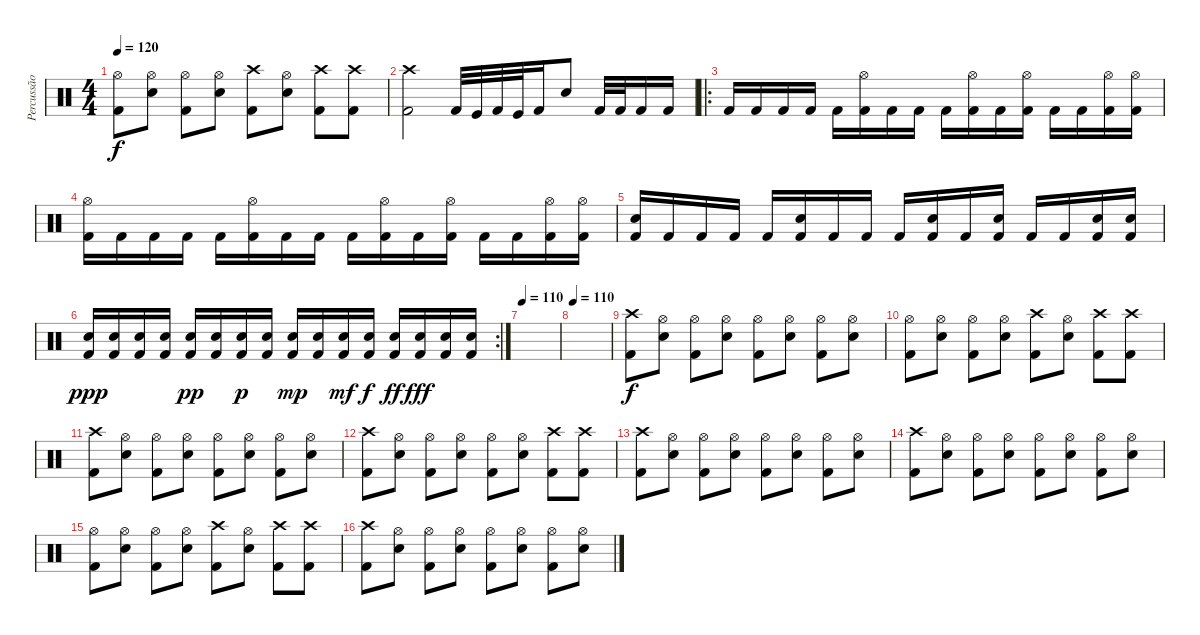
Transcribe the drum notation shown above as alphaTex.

\track ("Percussão" "Percussão") {instrument percussion}
\staff {score}
\articulation defaults
\ts (4 4)
\tempo 120
\clef neutral
\ks c
("Hi-Hat (open)" "Kick (hit) 2").8{dy f} ("Hi-Hat (open)" "Snare (hit) 2").8 ("Hi-Hat (open)" "Kick (hit) 2").8 ("Hi-Hat (open)" "Snare (hit) 2").8 ("Crash high (hit)" "Kick (hit) 2").8 ("Hi-Hat (open)" "Snare (hit) 2").8 ("Crash high (hit)" "Kick (hit) 2").8 ("Crash high (hit)" "Kick (hit) 2").8 |
("Crash high (hit)" "Kick (hit) 2").2 "Kick (hit) 2".32 "Kick (hit)".32 "Kick (hit) 2".32 "Kick (hit)".32 "Kick (hit) 2".16 "Snare (hit) 2".8 "Kick (hit) 2".32 "Kick (hit) 2".32 "Kick (hit) 2".16 "Kick (hit) 2".16 |
\ro "Kick (hit) 2".16 "Kick (hit) 2".16 "Kick (hit) 2".16 "Kick (hit) 2".16 "Kick (hit) 2".16
("Kick (hit) 2" "Hi-Hat (open)").16 "Kick (hit) 2".16 "Kick (hit) 2".16 "Kick (hit) 2".16 ("Kick (hit) 2" "Hi-Hat (open)").16 "Kick (hit) 2".16 ("Kick (hit) 2" "Hi-Hat (open)").16 "Kick (hit) 2".16 "Kick (hit) 2".16 ("Kick (hit) 2" "Hi-Hat (open)").16 ("Kick (hit) 2" "Hi-Hat (open)").16 |
("Kick (hit) 2" "Hi-Hat (open)").16 "Kick (hit) 2".16 "Kick (hit) 2".16 "Kick (hit) 2".16 "Kick (hit) 2".16 ("Kick (hit) 2" "Hi-Hat (open)").16 "Kick (hit) 2".16 "Kick (hit) 2".16 "Kick (hit) 2".16 ("Kick (hit) 2" "Hi-Hat (open)").16 "Kick (hit) 2".16 ("Kick (hit) 2" "Hi-Hat (open)").16 "Kick (hit) 2".16 "Kick (hit) 2".16 ("Kick (hit) 2" "Hi-Hat (open)").16 ("Kick (hit) 2" "Hi-Hat (open)").16 |
("Kick (hit) 2" "Snare (hit) 2").16 "Kick (hit) 2".16 "Kick (hit) 2".16 "Kick (hit) 2".16 "Kick (hit) 2".16 ("Kick (hit) 2" "Snare (hit) 2").16 "Kick (hit) 2".16 "Kick (hit) 2".16 "Kick (hit) 2".16 ("Kick (hit) 2" "Snare (hit) 2").16 "Kick (hit) 2".16 ("Kick (hit) 2" "Snare (hit) 2").16 "Kick (hit) 2".16 "Kick (hit) 2".16 ("Kick (hit) 2" "Snare (hit) 2").16 ("Kick (hit) 2" "Snare (hit) 2").16 |
\rc 2
("Kick (hit) 2" "Snare (hit) 2").16{dy ppp} ("Kick (hit) 2" "Snare (hit) 2").16 ("Kick (hit) 2" "Snare (hit) 2").16 ("Kick (hit) 2" "Snare (hit) 2").16 ("Kick (hit) 2" "Snare (hit) 2").16{dy pp} ("Kick (hit) 2" "Snare (hit) 2").16 ("Kick (hit) 2" "Snare (hit) 2").16{dy p} ("Kick (hit) 2" "Snare (hit) 2").16 ("Kick (hit) 2" "Snare (hit) 2").16{dy mp} ("Kick (hit) 2" "Snare (hit) 2").16 ("Kick (hit) 2" "Snare (hit) 2").16{dy mf} ("Kick (hit) 2" "Snare (hit) 2").16{dy f} ("Kick (hit) 2" "Snare (hit) 2").16{dy ff} ("Kick (hit) 2" "Snare (hit) 2").16{dy fff} ("Kick (hit) 2" "Snare (hit) 2").16 ("Kick (hit) 2" "Snare (hit) 2").16 |
\tempo 110
|
\tempo 110
|
("Crash high (hit)" "Kick (hit) 2").8{dy f} ("Hi-Hat (open)" "Snare (hit) 2").8 ("Hi-Hat (open)" "Kick (hit) 2").8 ("Hi-Hat (open)" "Snare (hit) 2").8 ("Hi-Hat (open)" "Kick (hit) 2").8 ("Hi-Hat (open)" "Snare (hit) 2").8 ("Hi-Hat (open)" "Kick (hit) 2").8 ("Hi-Hat (open)" "Snare (hit) 2").8 |
("Hi-Hat (open)" "Kick (hit) 2").8 ("Hi-Hat (open)" "Snare (hit) 2").8 ("Hi-Hat (open)" "Kick (hit) 2").8 ("Hi-Hat (open)" "Snare (hit) 2").8 ("Crash high (hit)" "Kick (hit) 2").8 ("Hi-Hat (open)" "Snare (hit) 2").8 ("Crash high (hit)" "Kick (hit) 2").8 ("Crash high (hit)" "Kick (hit) 2").8 |
("Crash high (hit)" "Kick (hit) 2").8 ("Hi-Hat (open)" "Snare (hit) 2").8 ("Hi-Hat (open)" "Kick (hit) 2").8 ("Hi-Hat (open)" "Snare (hit) 2").8 ("Hi-Hat (open)" "Kick (hit) 2").8 ("Hi-Hat (open)" "Snare (hit) 2").8 ("Hi-Hat (open)" "Kick (hit) 2").8 ("Hi-Hat (open)" "Snare (hit) 2").8 |
("Crash high (hit)" "Kick (hit) 2").8 ("Hi-Hat (open)" "Snare (hit) 2").8 ("Hi-Hat (open)" "Kick (hit) 2").8 ("Hi-Hat (open)" "Snare (hit) 2").8 ("Hi-Hat (open)" "Kick (hit) 2").8 ("Hi-Hat (open)" "Snare (hit) 2").8 ("Crash high (hit)" "Kick (hit) 2").8 ("Crash high (hit)" "Kick (hit) 2").8 |
("Crash high (hit)" "Kick (hit) 2").8 ("Hi-Hat (open)" "Snare (hit) 2").8 ("Hi-Hat (open)" "Kick (hit) 2").8 ("Hi-Hat (open)" "Snare (hit) 2").8 ("Hi-Hat (open)" "Kick (hit) 2").8 ("Hi-Hat (open)" "Snare (hit) 2").8 ("Hi-Hat (open)" "Kick (hit) 2").8 ("Hi-Hat (open)" "Snare (hit) 2").8 |
("Crash high (hit)" "Kick (hit) 2").8 ("Hi-Hat (open)" "Snare (hit) 2").8 ("Hi-Hat (open)" "Kick (hit) 2").8 ("Hi-Hat (open)" "Snare (hit) 2").8 ("Hi-Hat (open)" "Kick (hit) 2").8 ("Hi-Hat (open)" "Snare (hit) 2").8 ("Hi-Hat (open)" "Kick (hit) 2").8 ("Hi-Hat (open)" "Snare (hit) 2").8 |
("Hi-Hat (open)" "Kick (hit) 2").8 ("Hi-Hat (open)" "Snare (hit) 2").8 ("Hi-Hat (open)" "Kick (hit) 2").8 ("Hi-Hat (open)" "Snare (hit) 2").8 ("Crash high (hit)" "Kick (hit) 2").8 ("Hi-Hat (open)" "Snare (hit) 2").8 ("Crash high (hit)" "Kick (hit) 2").8 ("Crash high (hit)" "Kick (hit) 2").8 |
("Crash high (hit)" "Kick (hit) 2").8 ("Hi-Hat (open)" "Snare (hit) 2").8 ("Hi-Hat (open)" "Kick (hit) 2").8 ("Hi-Hat (open)" "Snare (hit) 2").8 ("Hi-Hat (open)" "Kick (hit) 2").8 ("Hi-Hat (open)" "Snare (hit) 2").8 ("Hi-Hat (open)" "Kick (hit) 2").8 ("Hi-Hat (open)" "Snare (hit) 2").8
